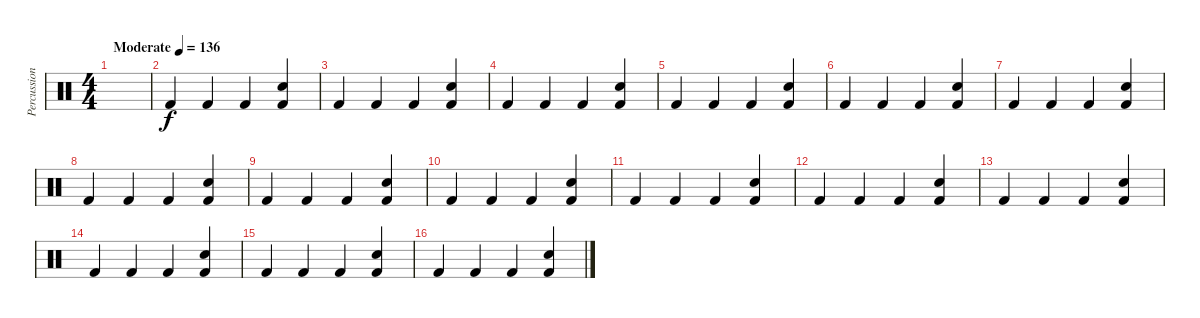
\track ("Percussion" "Percussion") {instrument percussion}
\staff {score}
\articulation defaults
\ts (4 4)
\tempo (136 "Moderate")
\clef neutral
\ks c
|
"Kick (hit) 2".4 "Kick (hit) 2".4 "Kick (hit) 2".4 ("Kick (hit) 2" "Snare (hit) 2").4 |
"Kick (hit) 2".4 "Kick (hit) 2".4 "Kick (hit) 2".4 ("Kick (hit) 2" "Snare (hit) 2").4 |
"Kick (hit) 2".4 "Kick (hit) 2".4 "Kick (hit) 2".4 ("Kick (hit) 2" "Snare (hit) 2").4 |
"Kick (hit) 2".4 "Kick (hit) 2".4 "Kick (hit) 2".4 ("Kick (hit) 2" "Snare (hit) 2").4 |
"Kick (hit) 2".4 "Kick (hit) 2".4 "Kick (hit) 2".4 ("Kick (hit) 2" "Snare (hit) 2").4 |
"Kick (hit) 2".4 "Kick (hit) 2".4 "Kick (hit) 2".4 ("Kick (hit) 2" "Snare (hit) 2").4 |
"Kick (hit) 2".4 "Kick (hit) 2".4 "Kick (hit) 2".4 ("Kick (hit) 2" "Snare (hit) 2").4 |
"Kick (hit) 2".4 "Kick (hit) 2".4 "Kick (hit) 2".4 ("Kick (hit) 2" "Snare (hit) 2").4 |
"Kick (hit) 2".4 "Kick (hit) 2".4 "Kick (hit) 2".4 ("Kick (hit) 2" "Snare (hit) 2").4 |
"Kick (hit) 2".4 "Kick (hit) 2".4 "Kick (hit) 2".4 ("Kick (hit) 2" "Snare (hit) 2").4 |
"Kick (hit) 2".4 "Kick (hit) 2".4 "Kick (hit) 2".4 ("Kick (hit) 2" "Snare (hit) 2").4 |
"Kick (hit) 2".4 "Kick (hit) 2".4 "Kick (hit) 2".4 ("Kick (hit) 2" "Snare (hit) 2").4 |
"Kick (hit) 2".4 "Kick (hit) 2".4 "Kick (hit) 2".4 ("Kick (hit) 2" "Snare (hit) 2").4 |
"Kick (hit) 2".4 "Kick (hit) 2".4 "Kick (hit) 2".4 ("Kick (hit) 2" "Snare (hit) 2").4 |
"Kick (hit) 2".4 "Kick (hit) 2".4 "Kick (hit) 2".4 ("Kick (hit) 2" "Snare (hit) 2").4
